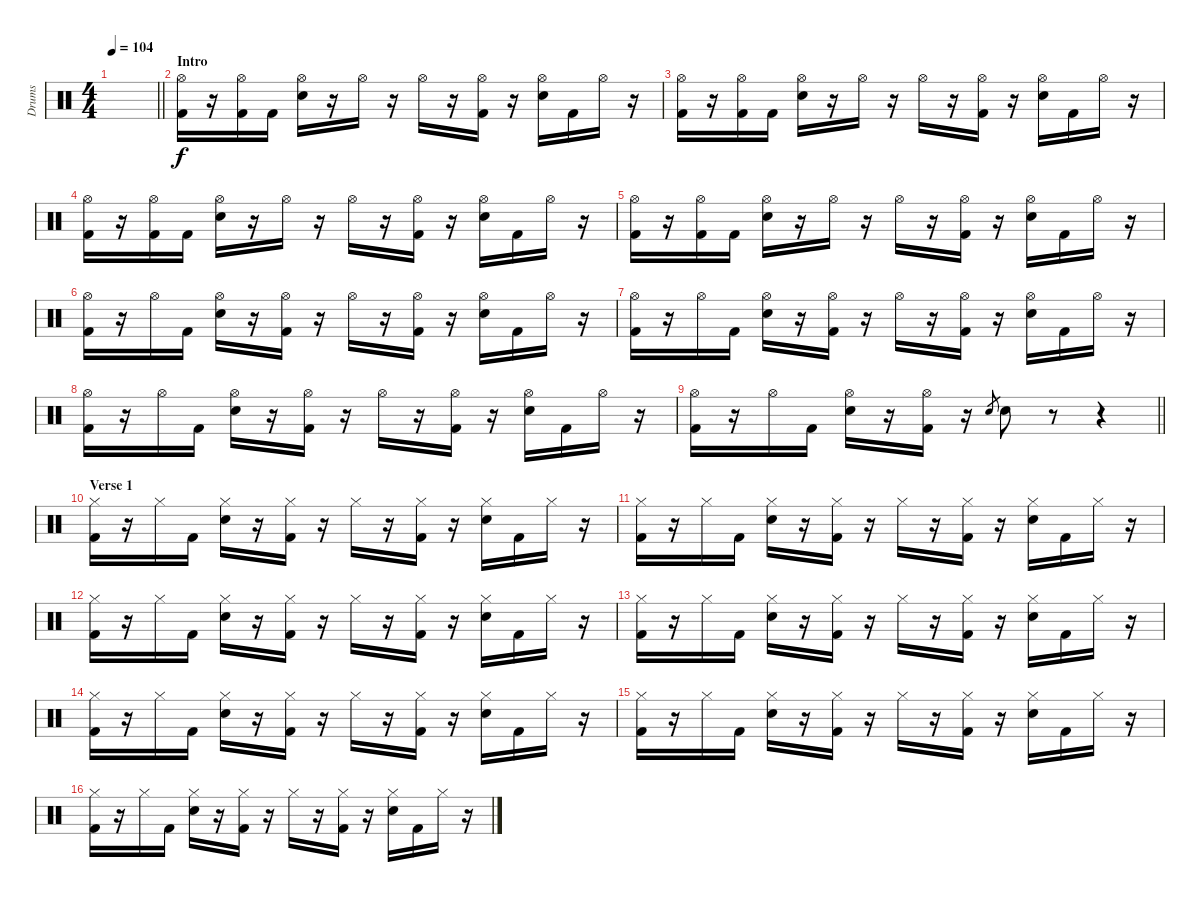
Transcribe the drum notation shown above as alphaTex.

\track ("Drums" "Drums") {instrument percussion}
\staff {score}
\articulation defaults
\ts (4 4)
\tempo 104
\clef neutral
\barLineRight lightlight
\ks c
|
\section ("" "Intro")
("Hi-Hat (open)" "Kick (hit) 2").16 r.16 ("Hi-Hat (open)" "Kick (hit) 2").16 "Kick (hit) 2".16 ("Hi-Hat (open)" "Snare (hit) 2").16 r.16 "Hi-Hat (open)".16 r.16 "Hi-Hat (open)".16 r.16 ("Hi-Hat (open)" "Kick (hit) 2").16 r.16 ("Hi-Hat (open)" "Snare (hit) 2").16 "Kick (hit) 2".16 "Hi-Hat (open)".16 r.16 |
("Hi-Hat (open)" "Kick (hit) 2").16 r.16 ("Hi-Hat (open)" "Kick (hit) 2").16 "Kick (hit) 2".16 ("Hi-Hat (open)" "Snare (hit) 2").16 r.16 "Hi-Hat (open)".16 r.16 "Hi-Hat (open)".16 r.16 ("Hi-Hat (open)" "Kick (hit) 2").16 r.16 ("Hi-Hat (open)" "Snare (hit) 2").16 "Kick (hit) 2".16 "Hi-Hat (open)".16 r.16 |
("Hi-Hat (open)" "Kick (hit) 2").16 r.16 ("Hi-Hat (open)" "Kick (hit) 2").16 "Kick (hit) 2".16 ("Hi-Hat (open)" "Snare (hit) 2").16 r.16 "Hi-Hat (open)".16 r.16 "Hi-Hat (open)".16 r.16 ("Hi-Hat (open)" "Kick (hit) 2").16 r.16 ("Hi-Hat (open)" "Snare (hit) 2").16 "Kick (hit) 2".16 "Hi-Hat (open)".16 r.16 |
("Hi-Hat (open)" "Kick (hit) 2").16 r.16 ("Hi-Hat (open)" "Kick (hit) 2").16 "Kick (hit) 2".16 ("Hi-Hat (open)" "Snare (hit) 2").16 r.16 "Hi-Hat (open)".16 r.16 "Hi-Hat (open)".16 r.16 ("Hi-Hat (open)" "Kick (hit) 2").16 r.16 ("Hi-Hat (open)" "Snare (hit) 2").16 "Kick (hit) 2".16 "Hi-Hat (open)".16 r.16 |
("Hi-Hat (open)" "Kick (hit) 2").16 r.16 "Hi-Hat (open)".16 "Kick (hit) 2".16 ("Hi-Hat (open)" "Snare (hit) 2").16 r.16 ("Hi-Hat (open)" "Kick (hit) 2").16 r.16 "Hi-Hat (open)".16 r.16 ("Hi-Hat (open)" "Kick (hit) 2").16 r.16 ("Hi-Hat (open)" "Snare (hit) 2").16 "Kick (hit) 2".16 "Hi-Hat (open)".16 r.16 |
("Hi-Hat (open)" "Kick (hit) 2").16 r.16 "Hi-Hat (open)".16 "Kick (hit) 2".16 ("Hi-Hat (open)" "Snare (hit) 2").16 r.16 ("Hi-Hat (open)" "Kick (hit) 2").16 r.16 "Hi-Hat (open)".16 r.16 ("Hi-Hat (open)" "Kick (hit) 2").16 r.16 ("Hi-Hat (open)" "Snare (hit) 2").16 "Kick (hit) 2".16 "Hi-Hat (open)".16 r.16 |
("Hi-Hat (open)" "Kick (hit) 2").16 r.16 "Hi-Hat (open)".16 "Kick (hit) 2".16 ("Hi-Hat (open)" "Snare (hit) 2").16 r.16 ("Hi-Hat (open)" "Kick (hit) 2").16 r.16 "Hi-Hat (open)".16 r.16 ("Hi-Hat (open)" "Kick (hit) 2").16 r.16 ("Hi-Hat (open)" "Snare (hit) 2").16 "Kick (hit) 2".16 "Hi-Hat (open)".16 r.16 |
\barLineRight lightlight
("Hi-Hat (open)" "Kick (hit) 2").16 r.16 "Hi-Hat (open)".16 "Kick (hit) 2".16 ("Hi-Hat (open)" "Snare (hit) 2").16 r.16 ("Hi-Hat (open)" "Kick (hit) 2").16 r.16 "Snare (hit) 2".8{gr} "Snare (hit) 2".8 r.8 r.4 |
\section ("" "Verse 1")
("Hi-Hat (closed)" "Kick (hit) 2").16 r.16 "Hi-Hat (closed)".16 "Kick (hit) 2".16 ("Hi-Hat (closed)" "Snare (hit) 2").16 r.16 ("Hi-Hat (closed)" "Kick (hit) 2").16 r.16 "Hi-Hat (closed)".16 r.16 ("Hi-Hat (closed)" "Kick (hit) 2").16 r.16 ("Hi-Hat (closed)" "Snare (hit) 2").16 "Kick (hit) 2".16 "Hi-Hat (closed)".16 r.16 |
("Hi-Hat (closed)" "Kick (hit) 2").16 r.16 "Hi-Hat (closed)".16 "Kick (hit) 2".16 ("Hi-Hat (closed)" "Snare (hit) 2").16 r.16 ("Hi-Hat (closed)" "Kick (hit) 2").16 r.16 "Hi-Hat (closed)".16 r.16 ("Hi-Hat (closed)" "Kick (hit) 2").16 r.16 ("Hi-Hat (closed)" "Snare (hit) 2").16 "Kick (hit) 2".16 "Hi-Hat (closed)".16 r.16 |
("Hi-Hat (closed)" "Kick (hit) 2").16 r.16 "Hi-Hat (closed)".16 "Kick (hit) 2".16 ("Hi-Hat (closed)" "Snare (hit) 2").16 r.16 ("Hi-Hat (closed)" "Kick (hit) 2").16 r.16 "Hi-Hat (closed)".16 r.16 ("Hi-Hat (closed)" "Kick (hit) 2").16 r.16 ("Hi-Hat (closed)" "Snare (hit) 2").16 "Kick (hit) 2".16 "Hi-Hat (closed)".16 r.16 |
("Hi-Hat (closed)" "Kick (hit) 2").16 r.16 "Hi-Hat (closed)".16 "Kick (hit) 2".16 ("Hi-Hat (closed)" "Snare (hit) 2").16 r.16 ("Hi-Hat (closed)" "Kick (hit) 2").16 r.16 "Hi-Hat (closed)".16 r.16 ("Hi-Hat (closed)" "Kick (hit) 2").16 r.16 ("Hi-Hat (closed)" "Snare (hit) 2").16 "Kick (hit) 2".16 "Hi-Hat (closed)".16 r.16 |
("Hi-Hat (closed)" "Kick (hit) 2").16 r.16 "Hi-Hat (closed)".16 "Kick (hit) 2".16 ("Hi-Hat (closed)" "Snare (hit) 2").16 r.16 ("Hi-Hat (closed)" "Kick (hit) 2").16 r.16 "Hi-Hat (closed)".16 r.16 ("Hi-Hat (closed)" "Kick (hit) 2").16 r.16 ("Hi-Hat (closed)" "Snare (hit) 2").16 "Kick (hit) 2".16 "Hi-Hat (closed)".16 r.16 |
("Hi-Hat (closed)" "Kick (hit) 2").16 r.16 "Hi-Hat (closed)".16 "Kick (hit) 2".16 ("Hi-Hat (closed)" "Snare (hit) 2").16 r.16 ("Hi-Hat (closed)" "Kick (hit) 2").16 r.16 "Hi-Hat (closed)".16 r.16 ("Hi-Hat (closed)" "Kick (hit) 2").16 r.16 ("Hi-Hat (closed)" "Snare (hit) 2").16 "Kick (hit) 2".16 "Hi-Hat (closed)".16 r.16 |
("Hi-Hat (closed)" "Kick (hit) 2").16 r.16 "Hi-Hat (closed)".16 "Kick (hit) 2".16 ("Hi-Hat (closed)" "Snare (hit) 2").16 r.16 ("Hi-Hat (closed)" "Kick (hit) 2").16 r.16 "Hi-Hat (closed)".16 r.16 ("Hi-Hat (closed)" "Kick (hit) 2").16 r.16 ("Hi-Hat (closed)" "Snare (hit) 2").16 "Kick (hit) 2".16 "Hi-Hat (closed)".16 r.16
